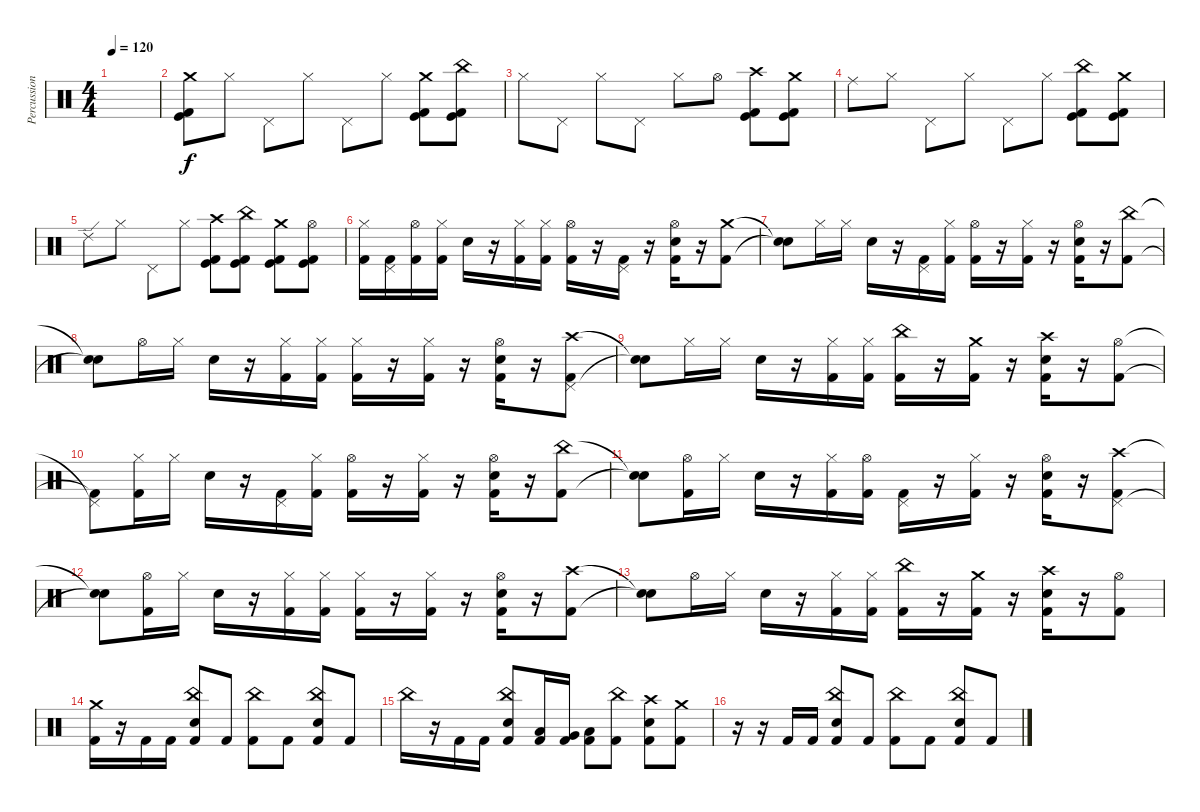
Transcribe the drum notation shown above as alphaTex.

\track ("Percussion" "Percussion") {instrument percussion}
\staff {score}
\articulation defaults
\ts (4 4)
\tempo 120
\clef neutral
\ks c
|
("Crash medium (hit)" "Kick (hit)" "Kick (hit) 2").8 "Hi-Hat (closed)".8 "Pedal Hi-Hat (hit)".8 "Hi-Hat (closed)".8 "Pedal Hi-Hat (hit)".8 "Hi-Hat (closed)".8 ("Crash medium (hit)" "Kick (hit)" "Kick (hit) 2").8 ("China (hit)" "Kick (hit)" "Kick (hit) 2").8 |
"Hi-Hat (closed)".8 "Pedal Hi-Hat (hit)".8 "Hi-Hat (closed)".8 "Pedal Hi-Hat (hit)".8 "Hi-Hat (closed)".8 "Hi-Hat (open)".8 ("Crash high (hit)" "Kick (hit)" "Kick (hit) 2").8 ("Crash medium (hit)" "Kick (hit)" "Kick (hit) 2").8 |
"Ride (middle)".8 "Hi-Hat (closed)".8 "Pedal Hi-Hat (hit)".8 "Hi-Hat (closed)".8 "Pedal Hi-Hat (hit)".8 "Hi-Hat (closed)".8 ("China (hit)" "Kick (hit)" "Kick (hit) 2").8 ("Crash medium (hit)" "Kick (hit)" "Kick (hit) 2").8 |
"Ride (edge) 2".8 "Hi-Hat (closed)".8 "Pedal Hi-Hat (hit)".8 "Hi-Hat (closed)".8 ("Crash high (hit)" "Kick (hit)" "Kick (hit) 2").8 ("China (hit)" "Kick (hit)" "Kick (hit) 2").8 ("Crash medium (hit)" "Kick (hit)" "Kick (hit) 2").8 ("Hi-Hat (open)" "Kick (hit)" "Kick (hit) 2").8 |
("Hi-Hat (closed)" "Kick (hit) 2").16 ("Pedal Hi-Hat (hit)" "Kick (hit) 2").16 ("Hi-Hat (open)" "Kick (hit) 2").16 ("Hi-Hat (closed)" "Kick (hit) 2").16 "Electric Snare (hit)".16 r.16 ("Hi-Hat (closed)" "Kick (hit) 2").16 ("Hi-Hat (closed)" "Kick (hit) 2").16 ("Hi-Hat (open)" "Kick (hit) 2").16 r.16 ("Pedal Hi-Hat (hit)" "Kick (hit) 2").16 r.16 ("Hi-Hat (open)" "Electric Snare (hit)" "Kick (hit) 2").16 r.16 ("Crash medium (hit)" "Kick (hit) 2").8 |
("Snare (hit)"{t} "Snare (hit)"{t}).8 "Hi-Hat (closed)".16 "Hi-Hat (closed)".16 "Electric Snare (hit)".16 r.16 ("Pedal Hi-Hat (hit)" "Kick (hit) 2").16 ("Hi-Hat (closed)" "Kick (hit) 2").16 ("Hi-Hat (open)" "Kick (hit) 2").16 r.16 ("Hi-Hat (closed)" "Kick (hit) 2").16 r.16 ("Hi-Hat (open)" "Electric Snare (hit)" "Kick (hit) 2").16 r.16 ("China (hit)" "Kick (hit) 2").8 |
("Snare (hit)"{t} "Snare (hit)"{t}).8 "Hi-Hat (open)".16 "Hi-Hat (closed)".16 "Electric Snare (hit)".16 r.16 ("Hi-Hat (closed)" "Kick (hit) 2").16 ("Hi-Hat (closed)" "Kick (hit) 2").16 ("Hi-Hat (closed)" "Kick (hit) 2").16 r.16 ("Hi-Hat (closed)" "Kick (hit) 2").16 r.16 ("Hi-Hat (open)" "Electric Snare (hit)" "Kick (hit) 2").16 r.16 ("Crash high (hit)" "Pedal Hi-Hat (hit)" "Kick (hit) 2").8 |
("Snare (hit)"{t} "Snare (hit)"{t}).8 "Hi-Hat (closed)".16 "Hi-Hat (closed)".16 "Electric Snare (hit)".16 r.16 ("Hi-Hat (closed)" "Kick (hit) 2").16 ("Hi-Hat (closed)" "Kick (hit) 2").16 ("China (hit)" "Kick (hit) 2").16 r.16 ("Crash medium (hit)" "Kick (hit) 2").16 r.16 ("Crash high (hit)" "Electric Snare (hit)" "Kick (hit) 2").16 r.16 ("Hi-Hat (open)" "Kick (hit) 2").8 |
("Pedal Hi-Hat (hit)"{t} "Kick (hit) 2"{t}).8 ("Hi-Hat (closed)" "Kick (hit) 2").16 "Hi-Hat (closed)".16 "Electric Snare (hit)".16 r.16 ("Pedal Hi-Hat (hit)" "Kick (hit) 2").16 ("Hi-Hat (closed)" "Kick (hit) 2").16 ("Hi-Hat (open)" "Kick (hit) 2").16 r.16 ("Hi-Hat (closed)" "Kick (hit) 2").16 r.16 ("Hi-Hat (open)" "Electric Snare (hit)" "Kick (hit) 2").16 r.16 ("China (hit)" "Kick (hit) 2").8 |
("Snare (hit)"{t} "Snare (hit)"{t}).8 ("Hi-Hat (open)" "Kick (hit) 2").16 "Hi-Hat (closed)".16 "Electric Snare (hit)".16 r.16 ("Hi-Hat (closed)" "Kick (hit) 2").16 ("Hi-Hat (open)" "Kick (hit) 2").16 ("Pedal Hi-Hat (hit)" "Kick (hit) 2").16 r.16 ("Hi-Hat (closed)" "Kick (hit) 2").16 r.16 ("Hi-Hat (open)" "Electric Snare (hit)" "Kick (hit) 2").16 r.16 ("Crash high (hit)" "Pedal Hi-Hat (hit)" "Kick (hit) 2").8 |
("Snare (hit)"{t} "Snare (hit)"{t}).8 ("Hi-Hat (open)" "Kick (hit) 2").16 "Hi-Hat (closed)".16 "Electric Snare (hit)".16 r.16 ("Hi-Hat (closed)" "Kick (hit) 2").16 ("Hi-Hat (closed)" "Kick (hit) 2").16 ("Hi-Hat (closed)" "Kick (hit) 2").16 r.16 ("Hi-Hat (closed)" "Kick (hit) 2").16 r.16 ("Hi-Hat (open)" "Electric Snare (hit)" "Kick (hit) 2").16 r.16 ("Crash high (hit)" "Kick (hit) 2").8 |
("Snare (hit)"{t} "Snare (hit)"{t}).8 "Hi-Hat (open)".16 "Hi-Hat (closed)".16 "Electric Snare (hit)".16 r.16 ("Hi-Hat (closed)" "Kick (hit) 2").16 ("Hi-Hat (closed)" "Kick (hit) 2").16 ("China (hit)" "Kick (hit) 2").16 r.16 ("Crash medium (hit)" "Kick (hit) 2").16 r.16 ("Crash high (hit)" "Electric Snare (hit)" "Kick (hit) 2").16 r.16 ("Hi-Hat (open)" "Kick (hit) 2").8 |
("Crash medium (hit)" "Kick (hit) 2").16 r.16 "Kick (hit) 2".16 "Kick (hit) 2".16 ("China (hit)" "Electric Snare (hit)" "Kick (hit) 2").8 "Kick (hit) 2".8 ("China (hit)" "Kick (hit) 2").8 "Kick (hit) 2".8 ("China (hit)" "Electric Snare (hit)" "Kick (hit) 2").8 "Kick (hit) 2".8 |
"China (hit)".16 r.16 "Kick (hit) 2".16 "Kick (hit) 2".16 ("China (hit)" "Electric Snare (hit)" "Kick (hit) 2").8 ("Low Tom (hit)" "Kick (hit) 2").16 ("Very Low Tom (hit)" "Kick (hit) 2").16 ("Low Floor Tom (hit)" "Kick (hit) 2").8 ("China (hit)" "Kick (hit) 2").8 ("Crash high (hit)" "Electric Snare (hit)" "Kick (hit) 2").8 ("Crash medium (hit)" "Kick (hit) 2").8 |
r.16 r.16 "Kick (hit) 2".16 "Kick (hit) 2".16 ("China (hit)" "Electric Snare (hit)" "Kick (hit) 2").8 "Kick (hit) 2".8 ("China (hit)" "Kick (hit) 2").8 "Kick (hit) 2".8 ("China (hit)" "Electric Snare (hit)" "Kick (hit) 2").8 "Kick (hit) 2".8
